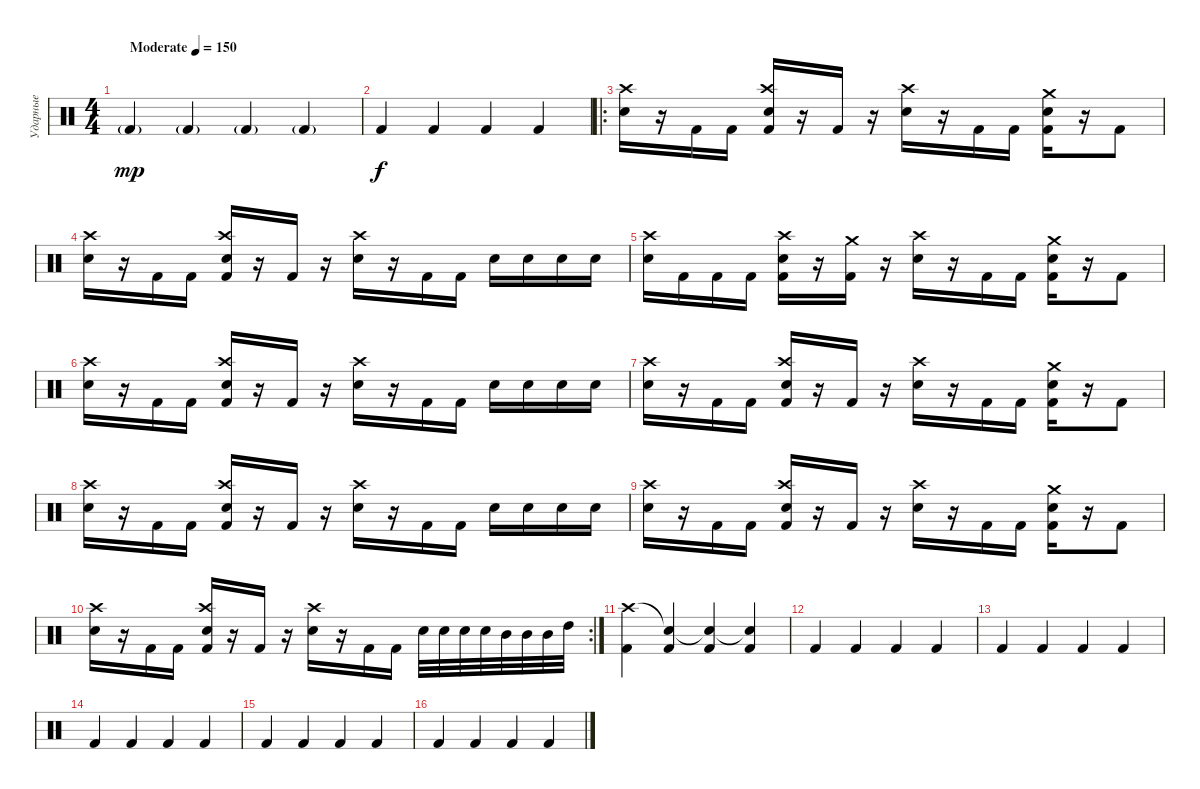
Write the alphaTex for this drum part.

\track ("Ударные" "Ударные") {instrument percussion}
\staff {score}
\articulation defaults
\ts (4 4)
\tempo (150 "Moderate")
\clef neutral
\ks c "Kick (hit) 2"{g}.4{dy mp volume 3} "Kick (hit) 2"{g}.4 "Kick (hit) 2"{g}.4 "Kick (hit) 2"{g}.4
|
"Kick (hit) 2".4{dy f volume 16} "Kick (hit) 2".4 "Kick (hit) 2".4 "Kick (hit) 2".4 |
\ro
("Crash high (hit)" "Electric Snare (hit)").16 r.16 "Kick (hit) 2".16 "Kick (hit) 2".16 ("Crash high (hit)" "Electric Snare (hit)" "Kick (hit) 2").16 r.16 "Kick (hit) 2".16 r.16 ("Crash high (hit)" "Electric Snare (hit)").16 r.16 "Kick (hit) 2".16 "Kick (hit) 2".16 ("Crash medium (hit)" "Electric Snare (hit)" "Kick (hit) 2").16 r.16 "Kick (hit) 2".8 |
("Crash high (hit)" "Electric Snare (hit)").16 r.16 "Kick (hit) 2".16 "Kick (hit) 2".16 ("Crash high (hit)" "Electric Snare (hit)" "Kick (hit) 2").16 r.16 "Kick (hit) 2".16 r.16 ("Crash high (hit)" "Electric Snare (hit)").16 r.16 "Kick (hit) 2".16 "Kick (hit) 2".16 "Electric Snare (hit)".16 "Electric Snare (hit)".16 "Electric Snare (hit)".16 "Electric Snare (hit)".16 |
("Crash high (hit)" "Electric Snare (hit)").16 "Kick (hit) 2".16 "Kick (hit) 2".16 "Kick (hit) 2".16 ("Crash high (hit)" "Electric Snare (hit)" "Kick (hit) 2").16 r.16 ("Crash medium (hit)" "Kick (hit) 2").16 r.16 ("Crash high (hit)" "Electric Snare (hit)").16 r.16 "Kick (hit) 2".16 "Kick (hit) 2".16 ("Crash medium (hit)" "Electric Snare (hit)" "Kick (hit) 2").16 r.16 "Kick (hit) 2".8 |
("Crash high (hit)" "Electric Snare (hit)").16 r.16 "Kick (hit) 2".16 "Kick (hit) 2".16 ("Crash high (hit)" "Electric Snare (hit)" "Kick (hit) 2").16 r.16 "Kick (hit) 2".16 r.16 ("Crash high (hit)" "Electric Snare (hit)").16 r.16 "Kick (hit) 2".16 "Kick (hit) 2".16 "Electric Snare (hit)".16 "Electric Snare (hit)".16 "Electric Snare (hit)".16 "Electric Snare (hit)".16 |
("Crash high (hit)" "Electric Snare (hit)").16 r.16 "Kick (hit) 2".16 "Kick (hit) 2".16 ("Crash high (hit)" "Electric Snare (hit)" "Kick (hit) 2").16 r.16 "Kick (hit) 2".16 r.16 ("Crash high (hit)" "Electric Snare (hit)").16 r.16 "Kick (hit) 2".16 "Kick (hit) 2".16 ("Crash medium (hit)" "Electric Snare (hit)" "Kick (hit) 2").16 r.16 "Kick (hit) 2".8 |
("Crash high (hit)" "Electric Snare (hit)").16 r.16 "Kick (hit) 2".16 "Kick (hit) 2".16 ("Crash high (hit)" "Electric Snare (hit)" "Kick (hit) 2").16 r.16 "Kick (hit) 2".16 r.16 ("Crash high (hit)" "Electric Snare (hit)").16 r.16 "Kick (hit) 2".16 "Kick (hit) 2".16 "Electric Snare (hit)".16 "Electric Snare (hit)".16 "Electric Snare (hit)".16 "Electric Snare (hit)".16 |
("Crash high (hit)" "Electric Snare (hit)").16 r.16 "Kick (hit) 2".16 "Kick (hit) 2".16 ("Crash high (hit)" "Electric Snare (hit)" "Kick (hit) 2").16 r.16 "Kick (hit) 2".16 r.16 ("Crash high (hit)" "Electric Snare (hit)").16 r.16 "Kick (hit) 2".16 "Kick (hit) 2".16 ("Crash medium (hit)" "Electric Snare (hit)" "Kick (hit) 2").16 r.16 "Kick (hit) 2".8 |
\rc 2
("Crash high (hit)" "Electric Snare (hit)").16 r.16 "Kick (hit) 2".16 "Kick (hit) 2".16 ("Crash high (hit)" "Electric Snare (hit)" "Kick (hit) 2").16 r.16 "Kick (hit) 2".16 r.16 ("Crash high (hit)" "Electric Snare (hit)").16 r.16 "Kick (hit) 2".16 "Kick (hit) 2".16 "Electric Snare (hit)".32 "Electric Snare (hit)".32 "Electric Snare (hit)".32 "Electric Snare (hit)".32 "Mid Tom (hit)".32 "Mid Tom (hit)".32 "Mid Tom (hit)".32 "High Tom (hit)".32 |
("Crash high (hit)" "Kick (hit) 2").4 ("Snare (hit)"{t} "Kick (hit) 2").4 ("Snare (hit)"{t} "Kick (hit) 2").4 ("Snare (hit)"{t} "Kick (hit) 2").4 |
"Kick (hit) 2".4 "Kick (hit) 2".4 "Kick (hit) 2".4 "Kick (hit) 2".4 |
"Kick (hit) 2".4 "Kick (hit) 2".4 "Kick (hit) 2".4 "Kick (hit) 2".4 |
"Kick (hit) 2".4 "Kick (hit) 2".4 "Kick (hit) 2".4 "Kick (hit) 2".4 |
"Kick (hit) 2".4 "Kick (hit) 2".4 "Kick (hit) 2".4 "Kick (hit) 2".4 |
"Kick (hit) 2".4 "Kick (hit) 2".4 "Kick (hit) 2".4 "Kick (hit) 2".4
